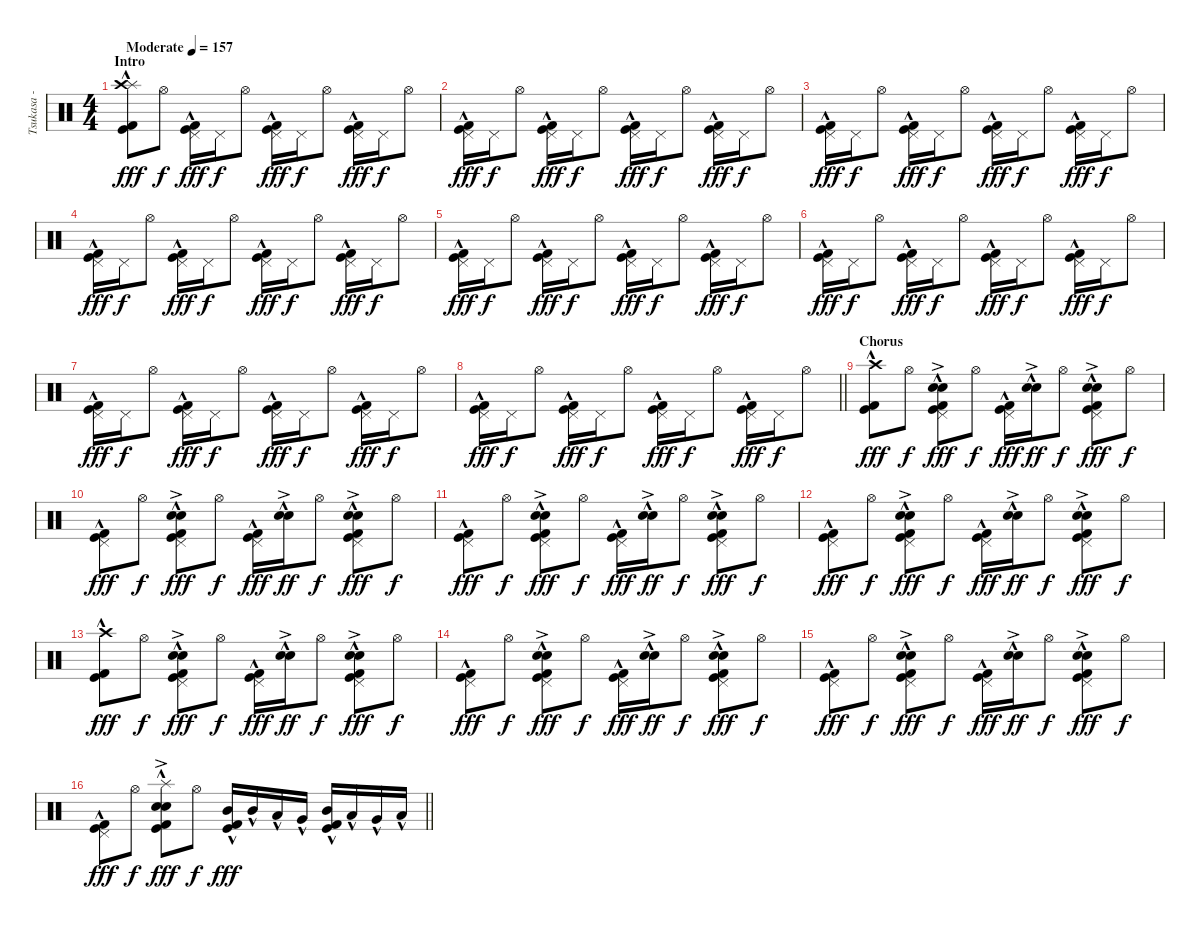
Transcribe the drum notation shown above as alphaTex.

\track ("Tsukasa - Drums" "Tsukasa - ") {instrument percussion}
\staff {score}
\articulation defaults
\ts (4 4)
\section ("" "Intro")
\tempo (157 "Moderate")
\clef neutral
\ks c
("Splash (hit)"{hac} "Crash high (hit)"{hac} "Kick (hit) 2"{hac} "Kick (hit)"{hac}).8{dy fff} "Hi-Hat (open)".8{dy f} ("Pedal Hi-Hat (hit)" "Kick (hit) 2"{hac} "Kick (hit)"{hac}).16{dy fff} "Pedal Hi-Hat (hit)".16{dy f} "Hi-Hat (open)".8 ("Pedal Hi-Hat (hit)" "Kick (hit) 2"{hac} "Kick (hit)"{hac}).16{dy fff} "Pedal Hi-Hat (hit)".16{dy f} "Hi-Hat (open)".8 ("Pedal Hi-Hat (hit)" "Kick (hit) 2"{hac} "Kick (hit)"{hac}).16{dy fff} "Pedal Hi-Hat (hit)".16{dy f} "Hi-Hat (open)".8 |
("Pedal Hi-Hat (hit)" "Kick (hit) 2"{hac} "Kick (hit)"{hac}).16{dy fff} "Pedal Hi-Hat (hit)".16{dy f} "Hi-Hat (open)".8 ("Pedal Hi-Hat (hit)" "Kick (hit) 2"{hac} "Kick (hit)"{hac}).16{dy fff} "Pedal Hi-Hat (hit)".16{dy f} "Hi-Hat (open)".8 ("Pedal Hi-Hat (hit)" "Kick (hit) 2"{hac} "Kick (hit)"{hac}).16{dy fff} "Pedal Hi-Hat (hit)".16{dy f} "Hi-Hat (open)".8 ("Pedal Hi-Hat (hit)" "Kick (hit) 2"{hac} "Kick (hit)"{hac}).16{dy fff} "Pedal Hi-Hat (hit)".16{dy f} "Hi-Hat (open)".8 |
("Pedal Hi-Hat (hit)" "Kick (hit) 2"{hac} "Kick (hit)"{hac}).16{dy fff} "Pedal Hi-Hat (hit)".16{dy f} "Hi-Hat (open)".8 ("Pedal Hi-Hat (hit)" "Kick (hit) 2"{hac} "Kick (hit)"{hac}).16{dy fff} "Pedal Hi-Hat (hit)".16{dy f} "Hi-Hat (open)".8 ("Pedal Hi-Hat (hit)" "Kick (hit) 2"{hac} "Kick (hit)"{hac}).16{dy fff} "Pedal Hi-Hat (hit)".16{dy f} "Hi-Hat (open)".8 ("Pedal Hi-Hat (hit)" "Kick (hit) 2"{hac} "Kick (hit)"{hac}).16{dy fff} "Pedal Hi-Hat (hit)".16{dy f} "Hi-Hat (open)".8 |
("Pedal Hi-Hat (hit)" "Kick (hit) 2"{hac} "Kick (hit)"{hac}).16{dy fff} "Pedal Hi-Hat (hit)".16{dy f} "Hi-Hat (open)".8 ("Pedal Hi-Hat (hit)" "Kick (hit) 2"{hac} "Kick (hit)"{hac}).16{dy fff} "Pedal Hi-Hat (hit)".16{dy f} "Hi-Hat (open)".8 ("Pedal Hi-Hat (hit)" "Kick (hit) 2"{hac} "Kick (hit)"{hac}).16{dy fff} "Pedal Hi-Hat (hit)".16{dy f} "Hi-Hat (open)".8 ("Pedal Hi-Hat (hit)" "Kick (hit) 2"{hac} "Kick (hit)"{hac}).16{dy fff} "Pedal Hi-Hat (hit)".16{dy f} "Hi-Hat (open)".8 |
("Pedal Hi-Hat (hit)" "Kick (hit) 2"{hac} "Kick (hit)"{hac}).16{dy fff} "Pedal Hi-Hat (hit)".16{dy f} "Hi-Hat (open)".8 ("Pedal Hi-Hat (hit)" "Kick (hit) 2"{hac} "Kick (hit)"{hac}).16{dy fff} "Pedal Hi-Hat (hit)".16{dy f} "Hi-Hat (open)".8 ("Pedal Hi-Hat (hit)" "Kick (hit) 2"{hac} "Kick (hit)"{hac}).16{dy fff} "Pedal Hi-Hat (hit)".16{dy f} "Hi-Hat (open)".8 ("Pedal Hi-Hat (hit)" "Kick (hit) 2"{hac} "Kick (hit)"{hac}).16{dy fff} "Pedal Hi-Hat (hit)".16{dy f} "Hi-Hat (open)".8 |
("Pedal Hi-Hat (hit)" "Kick (hit) 2"{hac} "Kick (hit)"{hac}).16{dy fff} "Pedal Hi-Hat (hit)".16{dy f} "Hi-Hat (open)".8 ("Pedal Hi-Hat (hit)" "Kick (hit) 2"{hac} "Kick (hit)"{hac}).16{dy fff} "Pedal Hi-Hat (hit)".16{dy f} "Hi-Hat (open)".8 ("Pedal Hi-Hat (hit)" "Kick (hit) 2"{hac} "Kick (hit)"{hac}).16{dy fff} "Pedal Hi-Hat (hit)".16{dy f} "Hi-Hat (open)".8 ("Pedal Hi-Hat (hit)" "Kick (hit) 2"{hac} "Kick (hit)"{hac}).16{dy fff} "Pedal Hi-Hat (hit)".16{dy f} "Hi-Hat (open)".8 |
("Pedal Hi-Hat (hit)" "Kick (hit) 2"{hac} "Kick (hit)"{hac}).16{dy fff} "Pedal Hi-Hat (hit)".16{dy f} "Hi-Hat (open)".8 ("Pedal Hi-Hat (hit)" "Kick (hit) 2"{hac} "Kick (hit)"{hac}).16{dy fff} "Pedal Hi-Hat (hit)".16{dy f} "Hi-Hat (open)".8 ("Pedal Hi-Hat (hit)" "Kick (hit) 2"{hac} "Kick (hit)"{hac}).16{dy fff} "Pedal Hi-Hat (hit)".16{dy f} "Hi-Hat (open)".8 ("Pedal Hi-Hat (hit)" "Kick (hit) 2"{hac} "Kick (hit)"{hac}).16{dy fff} "Pedal Hi-Hat (hit)".16{dy f} "Hi-Hat (open)".8 |
\barLineRight lightlight
("Pedal Hi-Hat (hit)" "Kick (hit) 2"{hac} "Kick (hit)"{hac}).16{dy fff} "Pedal Hi-Hat (hit)".16{dy f} "Hi-Hat (open)".8 ("Pedal Hi-Hat (hit)" "Kick (hit) 2"{hac} "Kick (hit)"{hac}).16{dy fff} "Pedal Hi-Hat (hit)".16{dy f} "Hi-Hat (open)".8 ("Pedal Hi-Hat (hit)" "Kick (hit) 2"{hac} "Kick (hit)"{hac}).16{dy fff} "Pedal Hi-Hat (hit)".16{dy f} "Hi-Hat (open)".8 ("Pedal Hi-Hat (hit)" "Kick (hit) 2"{hac} "Kick (hit)"{hac}).16{dy fff} "Pedal Hi-Hat (hit)".16{dy f} "Hi-Hat (open)".8 |
\section ("" "Chorus")
("Crash high (hit)"{hac} "Kick (hit) 2"{hac} "Kick (hit)"{hac}).8{dy fff} "Hi-Hat (open)".8{dy f} ("Pedal Hi-Hat (hit)" "Electric Snare (hit)"{hac} "Snare (hit) 2"{ac} "Kick (hit) 2"{hac} "Kick (hit)"{hac}).8{dy fff} "Hi-Hat (open)".8{dy f} ("Pedal Hi-Hat (hit)" "Kick (hit) 2"{hac} "Kick (hit)"{hac}).16{dy fff} ("Electric Snare (hit)"{hac} "Snare (hit) 2"{ac}).16{dy ff} "Hi-Hat (open)".8{dy f} ("Pedal Hi-Hat (hit)" "Electric Snare (hit)"{hac} "Snare (hit) 2"{ac} "Kick (hit) 2"{hac} "Kick (hit)"{hac}).8{dy fff} "Hi-Hat (open)".8{dy f} |
("Pedal Hi-Hat (hit)" "Kick (hit) 2"{hac} "Kick (hit)"{hac}).8{dy fff} "Hi-Hat (open)".8{dy f} ("Pedal Hi-Hat (hit)" "Electric Snare (hit)"{hac} "Snare (hit) 2"{ac} "Kick (hit) 2"{hac} "Kick (hit)"{hac}).8{dy fff} "Hi-Hat (open)".8{dy f} ("Pedal Hi-Hat (hit)" "Kick (hit) 2"{hac} "Kick (hit)"{hac}).16{dy fff} ("Electric Snare (hit)"{hac} "Snare (hit) 2"{ac}).16{dy ff} "Hi-Hat (open)".8{dy f} ("Pedal Hi-Hat (hit)" "Electric Snare (hit)"{hac} "Snare (hit) 2"{ac} "Kick (hit) 2"{hac} "Kick (hit)"{hac}).8{dy fff} "Hi-Hat (open)".8{dy f} |
("Pedal Hi-Hat (hit)" "Kick (hit) 2"{hac} "Kick (hit)"{hac}).8{dy fff} "Hi-Hat (open)".8{dy f} ("Pedal Hi-Hat (hit)" "Electric Snare (hit)"{hac} "Snare (hit) 2"{ac} "Kick (hit) 2"{hac} "Kick (hit)"{hac}).8{dy fff} "Hi-Hat (open)".8{dy f} ("Pedal Hi-Hat (hit)" "Kick (hit) 2"{hac} "Kick (hit)"{hac}).16{dy fff} ("Electric Snare (hit)"{hac} "Snare (hit) 2"{ac}).16{dy ff} "Hi-Hat (open)".8{dy f} ("Pedal Hi-Hat (hit)" "Electric Snare (hit)"{hac} "Snare (hit) 2"{ac} "Kick (hit) 2"{hac} "Kick (hit)"{hac}).8{dy fff} "Hi-Hat (open)".8{dy f} |
("Pedal Hi-Hat (hit)" "Kick (hit) 2"{hac} "Kick (hit)"{hac}).8{dy fff} "Hi-Hat (open)".8{dy f} ("Pedal Hi-Hat (hit)" "Electric Snare (hit)"{hac} "Snare (hit) 2"{ac} "Kick (hit) 2"{hac} "Kick (hit)"{hac}).8{dy fff} "Hi-Hat (open)".8{dy f} ("Pedal Hi-Hat (hit)" "Kick (hit) 2"{hac} "Kick (hit)"{hac}).16{dy fff} ("Electric Snare (hit)"{hac} "Snare (hit) 2"{ac}).16{dy ff} "Hi-Hat (open)".8{dy f} ("Pedal Hi-Hat (hit)" "Electric Snare (hit)"{hac} "Snare (hit) 2"{ac} "Kick (hit) 2"{hac} "Kick (hit)"{hac}).8{dy fff} "Hi-Hat (open)".8{dy f} |
("Crash high (hit)"{hac} "Kick (hit) 2"{hac} "Kick (hit)"{hac}).8{dy fff} "Hi-Hat (open)".8{dy f} ("Pedal Hi-Hat (hit)" "Electric Snare (hit)"{hac} "Snare (hit) 2"{ac} "Kick (hit) 2"{hac} "Kick (hit)"{hac}).8{dy fff} "Hi-Hat (open)".8{dy f} ("Pedal Hi-Hat (hit)" "Kick (hit) 2"{hac} "Kick (hit)"{hac}).16{dy fff} ("Electric Snare (hit)"{hac} "Snare (hit) 2"{ac}).16{dy ff} "Hi-Hat (open)".8{dy f} ("Pedal Hi-Hat (hit)" "Electric Snare (hit)"{hac} "Snare (hit) 2"{ac} "Kick (hit) 2"{hac} "Kick (hit)"{hac}).8{dy fff} "Hi-Hat (open)".8{dy f} |
("Pedal Hi-Hat (hit)" "Kick (hit) 2"{hac} "Kick (hit)"{hac}).8{dy fff} "Hi-Hat (open)".8{dy f} ("Pedal Hi-Hat (hit)" "Electric Snare (hit)"{hac} "Snare (hit) 2"{ac} "Kick (hit) 2"{hac} "Kick (hit)"{hac}).8{dy fff} "Hi-Hat (open)".8{dy f} ("Pedal Hi-Hat (hit)" "Kick (hit) 2"{hac} "Kick (hit)"{hac}).16{dy fff} ("Electric Snare (hit)"{hac} "Snare (hit) 2"{ac}).16{dy ff} "Hi-Hat (open)".8{dy f} ("Pedal Hi-Hat (hit)" "Electric Snare (hit)"{hac} "Snare (hit) 2"{ac} "Kick (hit) 2"{hac} "Kick (hit)"{hac}).8{dy fff} "Hi-Hat (open)".8{dy f} |
("Pedal Hi-Hat (hit)" "Kick (hit) 2"{hac} "Kick (hit)"{hac}).8{dy fff} "Hi-Hat (open)".8{dy f} ("Pedal Hi-Hat (hit)" "Electric Snare (hit)"{hac} "Snare (hit) 2"{ac} "Kick (hit) 2"{hac} "Kick (hit)"{hac}).8{dy fff} "Hi-Hat (open)".8{dy f} ("Pedal Hi-Hat (hit)" "Kick (hit) 2"{hac} "Kick (hit)"{hac}).16{dy fff} ("Electric Snare (hit)"{hac} "Snare (hit) 2"{ac}).16{dy ff} "Hi-Hat (open)".8{dy f} ("Pedal Hi-Hat (hit)" "Electric Snare (hit)"{hac} "Snare (hit) 2"{ac} "Kick (hit) 2"{hac} "Kick (hit)"{hac}).8{dy fff} "Hi-Hat (open)".8{dy f} |
\barLineRight lightlight
("Pedal Hi-Hat (hit)" "Kick (hit) 2"{hac} "Kick (hit)"{hac}).8{dy fff} "Hi-Hat (open)".8{dy f} ("Splash (hit)"{hac} "Electric Snare (hit)"{hac} "Snare (hit) 2"{ac} "Kick (hit) 2"{hac} "Kick (hit)"{hac}).8{dy fff} "Hi-Hat (open)".8{dy f} ("Mid Tom (hit)"{hac} "Kick (hit) 2"{hac} "Kick (hit)"{hac}).16{dy fff} "Mid Tom (hit)"{hac}.16 "Low Tom (hit)"{hac}.16 "Very Low Tom (hit)"{hac}.16 ("Mid Tom (hit)"{hac} "Kick (hit) 2"{hac} "Kick (hit)"{hac}).16 "Low Tom (hit)"{hac}.16 "Very Low Tom (hit)"{hac}.16 "Low Floor Tom (hit)"{hac}.16
